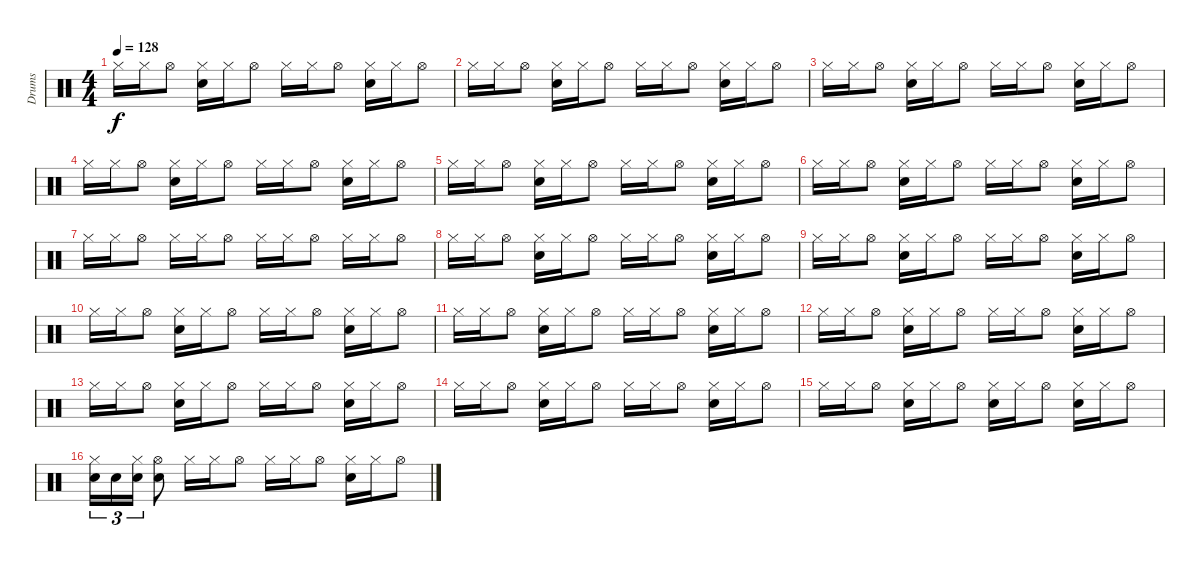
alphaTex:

\track ("Drums" "Drums") {instrument percussion}
\staff {score}
\articulation defaults
\ts (4 4)
\tempo 128
\clef neutral
\ks c "Hi-Hat (closed)".16{dy f} "Hi-Hat (closed)".16 "Hi-Hat (open)".8
("Hi-Hat (closed)" "Electric Snare (hit)").16 "Hi-Hat (closed)".16 "Hi-Hat (open)".8 "Hi-Hat (closed)".16 "Hi-Hat (closed)".16 "Hi-Hat (open)".8 ("Hi-Hat (closed)" "Electric Snare (hit)").16 "Hi-Hat (closed)".16 "Hi-Hat (open)".8 |
"Hi-Hat (closed)".16 "Hi-Hat (closed)".16 "Hi-Hat (open)".8 ("Hi-Hat (closed)" "Electric Snare (hit)").16 "Hi-Hat (closed)".16 "Hi-Hat (open)".8 "Hi-Hat (closed)".16 "Hi-Hat (closed)".16 "Hi-Hat (open)".8 ("Hi-Hat (closed)" "Electric Snare (hit)").16 "Hi-Hat (closed)".16 "Hi-Hat (open)".8 |
"Hi-Hat (closed)".16 "Hi-Hat (closed)".16 "Hi-Hat (open)".8 ("Hi-Hat (closed)" "Electric Snare (hit)").16 "Hi-Hat (closed)".16 "Hi-Hat (open)".8 "Hi-Hat (closed)".16 "Hi-Hat (closed)".16 "Hi-Hat (open)".8 ("Hi-Hat (closed)" "Electric Snare (hit)").16 "Hi-Hat (closed)".16 "Hi-Hat (open)".8 |
"Hi-Hat (closed)".16 "Hi-Hat (closed)".16 "Hi-Hat (open)".8 ("Hi-Hat (closed)" "Electric Snare (hit)").16 "Hi-Hat (closed)".16 "Hi-Hat (open)".8 "Hi-Hat (closed)".16 "Hi-Hat (closed)".16 "Hi-Hat (open)".8 ("Hi-Hat (closed)" "Electric Snare (hit)").16 "Hi-Hat (closed)".16 "Hi-Hat (open)".8 |
"Hi-Hat (closed)".16 "Hi-Hat (closed)".16 "Hi-Hat (open)".8 ("Hi-Hat (closed)" "Electric Snare (hit)").16 "Hi-Hat (closed)".16 "Hi-Hat (open)".8 "Hi-Hat (closed)".16 "Hi-Hat (closed)".16 "Hi-Hat (open)".8 ("Hi-Hat (closed)" "Electric Snare (hit)").16 "Hi-Hat (closed)".16 "Hi-Hat (open)".8 |
"Hi-Hat (closed)".16 "Hi-Hat (closed)".16 "Hi-Hat (open)".8 ("Hi-Hat (closed)" "Electric Snare (hit)").16 "Hi-Hat (closed)".16 "Hi-Hat (open)".8 "Hi-Hat (closed)".16 "Hi-Hat (closed)".16 "Hi-Hat (open)".8 ("Hi-Hat (closed)" "Electric Snare (hit)").16 "Hi-Hat (closed)".16 "Hi-Hat (open)".8 |
"Hi-Hat (closed)".16 "Hi-Hat (closed)".16 "Hi-Hat (open)".8 "Hi-Hat (closed)".16 "Hi-Hat (closed)".16 "Hi-Hat (open)".8 "Hi-Hat (closed)".16 "Hi-Hat (closed)".16 "Hi-Hat (open)".8 "Hi-Hat (closed)".16 "Hi-Hat (closed)".16 "Hi-Hat (open)".8 |
"Hi-Hat (closed)".16 "Hi-Hat (closed)".16 "Hi-Hat (open)".8 ("Hi-Hat (closed)" "Electric Snare (hit)").16 "Hi-Hat (closed)".16 "Hi-Hat (open)".8 "Hi-Hat (closed)".16 "Hi-Hat (closed)".16 "Hi-Hat (open)".8 ("Hi-Hat (closed)" "Electric Snare (hit)").16 "Hi-Hat (closed)".16 "Hi-Hat (open)".8 |
"Hi-Hat (closed)".16 "Hi-Hat (closed)".16 "Hi-Hat (open)".8 ("Hi-Hat (closed)" "Electric Snare (hit)").16 "Hi-Hat (closed)".16 "Hi-Hat (open)".8 "Hi-Hat (closed)".16 "Hi-Hat (closed)".16 "Hi-Hat (open)".8 ("Hi-Hat (closed)" "Electric Snare (hit)").16 "Hi-Hat (closed)".16 "Hi-Hat (open)".8 |
"Hi-Hat (closed)".16 "Hi-Hat (closed)".16 "Hi-Hat (open)".8 ("Hi-Hat (closed)" "Electric Snare (hit)").16 "Hi-Hat (closed)".16 "Hi-Hat (open)".8 "Hi-Hat (closed)".16 "Hi-Hat (closed)".16 "Hi-Hat (open)".8 ("Hi-Hat (closed)" "Electric Snare (hit)").16 "Hi-Hat (closed)".16 "Hi-Hat (open)".8 |
"Hi-Hat (closed)".16 "Hi-Hat (closed)".16 "Hi-Hat (open)".8 ("Hi-Hat (closed)" "Electric Snare (hit)").16 "Hi-Hat (closed)".16 "Hi-Hat (open)".8 "Hi-Hat (closed)".16 "Hi-Hat (closed)".16 "Hi-Hat (open)".8 ("Hi-Hat (closed)" "Electric Snare (hit)").16 "Hi-Hat (closed)".16 "Hi-Hat (open)".8 |
"Hi-Hat (closed)".16 "Hi-Hat (closed)".16 "Hi-Hat (open)".8 ("Hi-Hat (closed)" "Electric Snare (hit)").16 "Hi-Hat (closed)".16 "Hi-Hat (open)".8 "Hi-Hat (closed)".16 "Hi-Hat (closed)".16 "Hi-Hat (open)".8 ("Hi-Hat (closed)" "Electric Snare (hit)").16 "Hi-Hat (closed)".16 "Hi-Hat (open)".8 |
"Hi-Hat (closed)".16 "Hi-Hat (closed)".16 "Hi-Hat (open)".8 ("Hi-Hat (closed)" "Electric Snare (hit)").16 "Hi-Hat (closed)".16 "Hi-Hat (open)".8 "Hi-Hat (closed)".16 "Hi-Hat (closed)".16 "Hi-Hat (open)".8 ("Hi-Hat (closed)" "Electric Snare (hit)").16 "Hi-Hat (closed)".16 "Hi-Hat (open)".8 |
"Hi-Hat (closed)".16 "Hi-Hat (closed)".16 "Hi-Hat (open)".8 ("Hi-Hat (closed)" "Electric Snare (hit)").16 "Hi-Hat (closed)".16 "Hi-Hat (open)".8 "Hi-Hat (closed)".16 "Hi-Hat (closed)".16 "Hi-Hat (open)".8 ("Hi-Hat (closed)" "Electric Snare (hit)").16 "Hi-Hat (closed)".16 "Hi-Hat (open)".8 |
"Hi-Hat (closed)".16 "Hi-Hat (closed)".16 "Hi-Hat (open)".8 ("Hi-Hat (closed)" "Electric Snare (hit)").16 "Hi-Hat (closed)".16 "Hi-Hat (open)".8 ("Hi-Hat (closed)" "Electric Snare (hit)").16 "Hi-Hat (closed)".16 "Hi-Hat (open)".8 ("Hi-Hat (closed)" "Electric Snare (hit)").16 "Hi-Hat (closed)".16 "Hi-Hat (open)".8 |
("Hi-Hat (closed)" "Electric Snare (hit)").16{tu (3 2)} "Electric Snare (hit)".16{tu (3 2)} ("Hi-Hat (closed)" "Electric Snare (hit)").16{tu (3 2)} ("Electric Snare (hit)" "Hi-Hat (open)").8 "Hi-Hat (closed)".16 "Hi-Hat (closed)".16 "Hi-Hat (open)".8 "Hi-Hat (closed)".16 "Hi-Hat (closed)".16 "Hi-Hat (open)".8 ("Hi-Hat (closed)" "Electric Snare (hit)").16 "Hi-Hat (closed)".16 "Hi-Hat (open)".8
